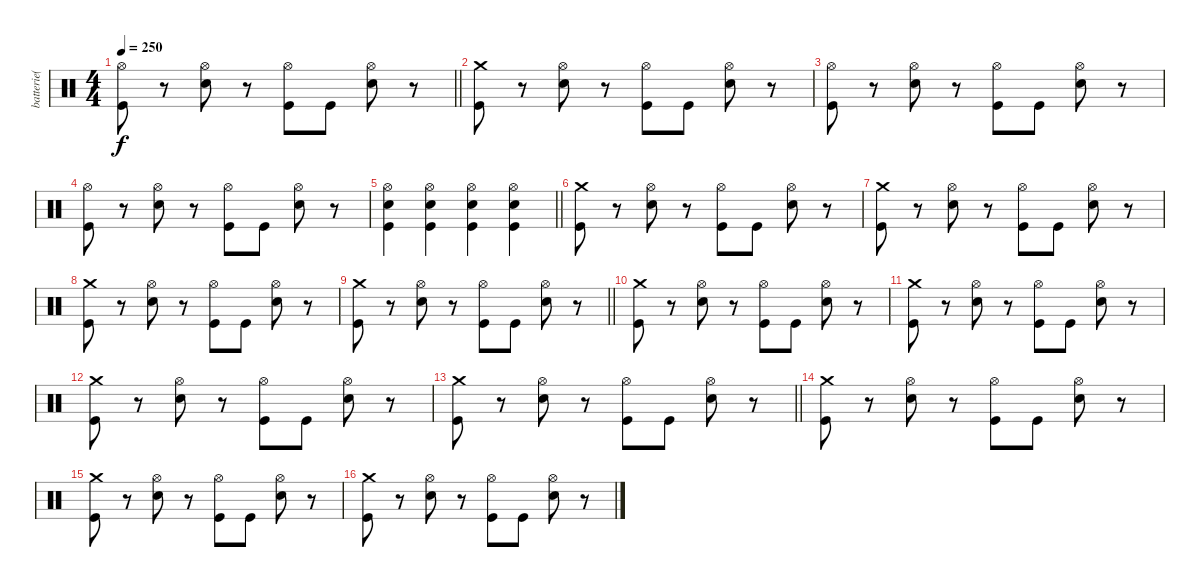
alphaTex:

\track ("batterie( Yureesh )" "batterie( ") {instrument percussion}
\staff {score}
\articulation defaults
\ts (4 4)
\tempo 250
\clef neutral
\barLineRight lightlight
\ks c
("Hi-Hat (open)" "Kick (hit)").8{dy f} r.8 ("Hi-Hat (open)" "Snare (hit) 2").8 r.8 ("Hi-Hat (open)" "Kick (hit)").8 "Kick (hit)".8 ("Hi-Hat (open)" "Snare (hit) 2").8 r.8 |
("Crash medium (hit)" "Kick (hit)").8 r.8 ("Hi-Hat (open)" "Snare (hit) 2").8 r.8 ("Hi-Hat (open)" "Kick (hit)").8 "Kick (hit)".8 ("Hi-Hat (open)" "Snare (hit) 2").8 r.8 |
("Hi-Hat (open)" "Kick (hit)").8 r.8 ("Hi-Hat (open)" "Snare (hit) 2").8 r.8 ("Hi-Hat (open)" "Kick (hit)").8 "Kick (hit)".8 ("Hi-Hat (open)" "Snare (hit) 2").8 r.8 |
("Hi-Hat (open)" "Kick (hit)").8 r.8 ("Hi-Hat (open)" "Snare (hit) 2").8 r.8 ("Hi-Hat (open)" "Kick (hit)").8 "Kick (hit)".8 ("Hi-Hat (open)" "Snare (hit) 2").8 r.8 |
\barLineRight lightlight
("Hi-Hat (open)" "Snare (hit) 2" "Kick (hit)").4 ("Hi-Hat (open)" "Snare (hit) 2" "Kick (hit)").4 ("Hi-Hat (open)" "Snare (hit) 2" "Kick (hit)").4 ("Hi-Hat (open)" "Snare (hit) 2" "Kick (hit)").4 |
("Crash medium (hit)" "Kick (hit)").8 r.8 ("Hi-Hat (open)" "Snare (hit) 2").8 r.8 ("Hi-Hat (open)" "Kick (hit)").8 "Kick (hit)".8 ("Hi-Hat (open)" "Snare (hit) 2").8 r.8 |
("Crash medium (hit)" "Kick (hit)").8 r.8 ("Hi-Hat (open)" "Snare (hit) 2").8 r.8 ("Hi-Hat (open)" "Kick (hit)").8 "Kick (hit)".8 ("Hi-Hat (open)" "Snare (hit) 2").8 r.8 |
("Crash medium (hit)" "Kick (hit)").8 r.8 ("Hi-Hat (open)" "Snare (hit) 2").8 r.8 ("Hi-Hat (open)" "Kick (hit)").8 "Kick (hit)".8 ("Hi-Hat (open)" "Snare (hit) 2").8 r.8 |
\barLineRight lightlight
("Crash medium (hit)" "Kick (hit)").8 r.8 ("Hi-Hat (open)" "Snare (hit) 2").8 r.8 ("Hi-Hat (open)" "Kick (hit)").8 "Kick (hit)".8 ("Hi-Hat (open)" "Snare (hit) 2").8 r.8 |
("Crash medium (hit)" "Kick (hit)").8 r.8 ("Hi-Hat (open)" "Snare (hit) 2").8 r.8 ("Hi-Hat (open)" "Kick (hit)").8 "Kick (hit)".8 ("Hi-Hat (open)" "Snare (hit) 2").8 r.8 |
("Crash medium (hit)" "Kick (hit)").8 r.8 ("Hi-Hat (open)" "Snare (hit) 2").8 r.8 ("Hi-Hat (open)" "Kick (hit)").8 "Kick (hit)".8 ("Hi-Hat (open)" "Snare (hit) 2").8 r.8 |
("Crash medium (hit)" "Kick (hit)").8 r.8 ("Hi-Hat (open)" "Snare (hit) 2").8 r.8 ("Hi-Hat (open)" "Kick (hit)").8 "Kick (hit)".8 ("Hi-Hat (open)" "Snare (hit) 2").8 r.8 |
\barLineRight lightlight
("Crash medium (hit)" "Kick (hit)").8 r.8 ("Hi-Hat (open)" "Snare (hit) 2").8 r.8 ("Hi-Hat (open)" "Kick (hit)").8 "Kick (hit)".8 ("Hi-Hat (open)" "Snare (hit) 2").8 r.8 |
("Crash medium (hit)" "Kick (hit)").8 r.8 ("Hi-Hat (open)" "Snare (hit) 2").8 r.8 ("Hi-Hat (open)" "Kick (hit)").8 "Kick (hit)".8 ("Hi-Hat (open)" "Snare (hit) 2").8 r.8 |
("Crash medium (hit)" "Kick (hit)").8 r.8 ("Hi-Hat (open)" "Snare (hit) 2").8 r.8 ("Hi-Hat (open)" "Kick (hit)").8 "Kick (hit)".8 ("Hi-Hat (open)" "Snare (hit) 2").8 r.8 |
("Crash medium (hit)" "Kick (hit)").8 r.8 ("Hi-Hat (open)" "Snare (hit) 2").8 r.8 ("Hi-Hat (open)" "Kick (hit)").8 "Kick (hit)".8 ("Hi-Hat (open)" "Snare (hit) 2").8 r.8
